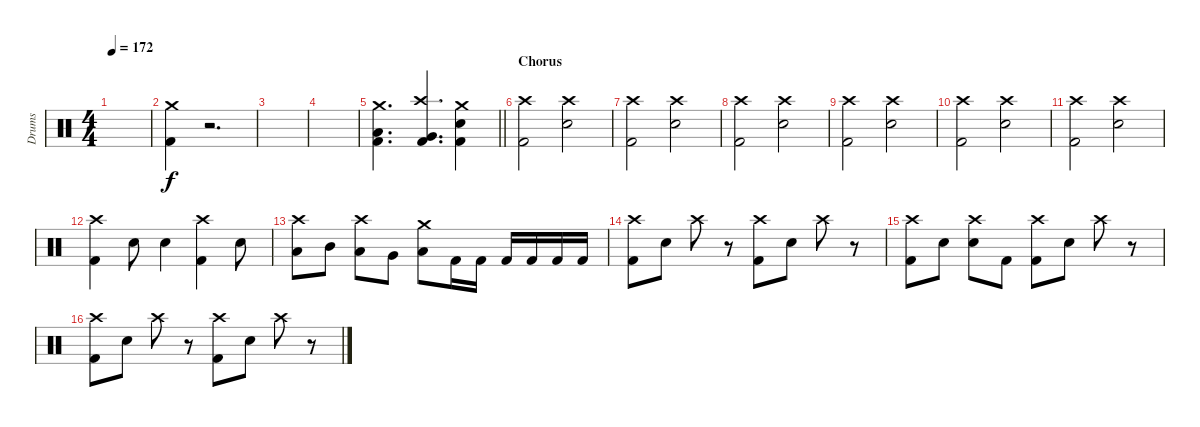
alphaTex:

\track ("Drums" "Drums") {instrument percussion}
\staff {score}
\articulation defaults
\ts (4 4)
\tempo 172
\clef neutral
\ks c
|
("Crash medium (hit)" "Kick (hit) 2").4{dy f} r.2{d volume 0} |
|
|
\barLineRight lightlight
("Crash medium (hit)" "Low Tom (hit)" "Kick (hit) 2").4{d volume 16} ("Crash high (hit)" "Very Low Tom (hit)" "Kick (hit) 2").4{d} ("Crash medium (hit)" "Electric Snare (hit)" "Kick (hit) 2").4 |
\section ("" "Chorus")
("Crash high (hit)" "Kick (hit) 2").2 ("Crash high (hit)" "Electric Snare (hit)").2 |
("Crash high (hit)" "Kick (hit) 2").2 ("Crash high (hit)" "Electric Snare (hit)").2 |
("Crash high (hit)" "Kick (hit) 2").2 ("Crash high (hit)" "Electric Snare (hit)").2 |
("Crash high (hit)" "Kick (hit) 2").2 ("Crash high (hit)" "Electric Snare (hit)").2 |
("Crash high (hit)" "Kick (hit) 2").2 ("Crash high (hit)" "Electric Snare (hit)").2 |
("Crash high (hit)" "Kick (hit) 2").2 ("Crash high (hit)" "Electric Snare (hit)").2 |
("Crash high (hit)" "Kick (hit) 2").4 "Electric Snare (hit)".8 "Electric Snare (hit)".4 ("Crash high (hit)" "Kick (hit) 2").4 "Electric Snare (hit)".8 |
("Crash high (hit)" "Low Tom (hit)").8 "Mid Tom (hit)".8 ("Crash high (hit)" "Low Tom (hit)").8 "Very Low Tom (hit)".8 ("Crash medium (hit)" "Low Floor Tom (hit)").8 "Kick (hit) 2".16 "Kick (hit) 2".16 "Kick (hit) 2".16 "Kick (hit) 2".16 "Kick (hit) 2".16 "Kick (hit) 2".16 |
("Crash high (hit)" "Kick (hit) 2").8 "Electric Snare (hit)".8 "Crash high (hit)".8 r.8 ("Crash high (hit)" "Kick (hit) 2").8 "Electric Snare (hit)".8 "Crash high (hit)".8 r.8 |
("Crash high (hit)" "Kick (hit) 2").8 "Electric Snare (hit)".8 ("Crash high (hit)" "Electric Snare (hit)").8 "Kick (hit) 2".8 ("Crash high (hit)" "Kick (hit) 2").8 "Electric Snare (hit)".8 "Crash high (hit)".8 r.8 |
("Crash high (hit)" "Kick (hit) 2").8 "Electric Snare (hit)".8 "Crash high (hit)".8 r.8 ("Crash high (hit)" "Kick (hit) 2").8 "Electric Snare (hit)".8 "Crash high (hit)".8 r.8
